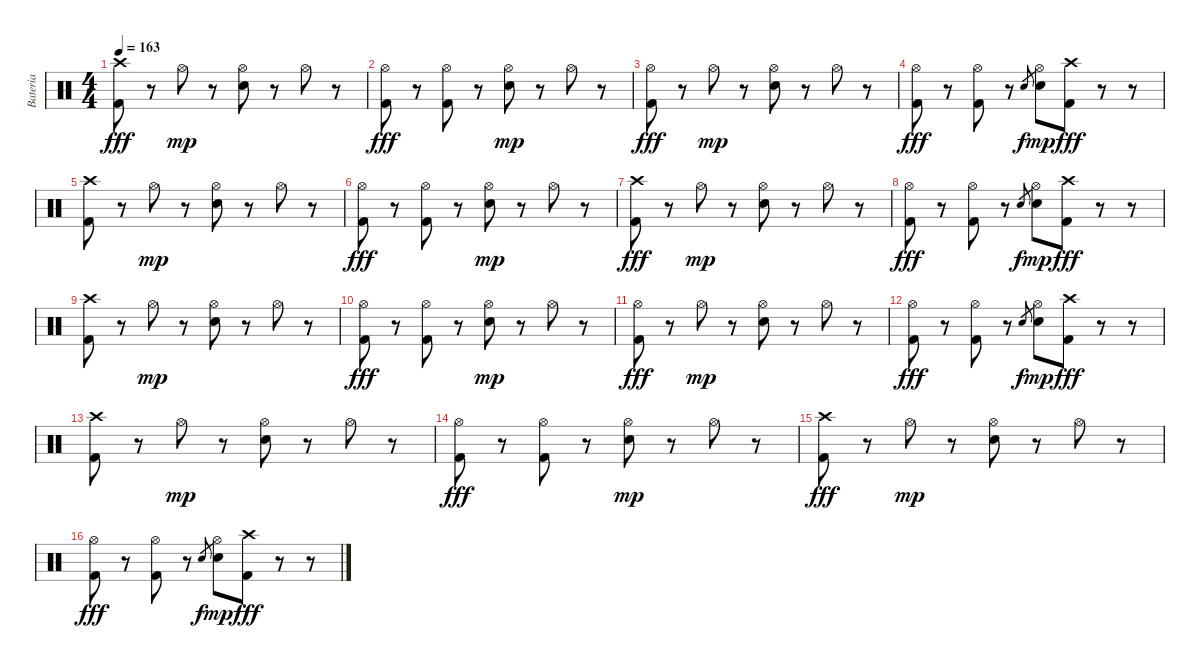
\track ("Bateria" "Bateria") {instrument percussion}
\staff {score}
\articulation defaults
\ts (4 4)
\tempo 163
\clef neutral
\ks c
("Crash high (hit)" "Kick (hit) 2").8{dy fff} r.8 "Hi-Hat (open)".8{dy mp} r.8 ("Hi-Hat (open)" "Electric Snare (hit)").8 r.8 "Hi-Hat (open)".8 r.8 |
("Hi-Hat (open)" "Kick (hit) 2").8{dy fff} r.8 ("Hi-Hat (open)" "Kick (hit) 2").8 r.8 ("Hi-Hat (open)" "Electric Snare (hit)").8{dy mp} r.8 "Hi-Hat (open)".8 r.8 |
("Hi-Hat (open)" "Kick (hit) 2").8{dy fff} r.8 "Hi-Hat (open)".8{dy mp} r.8 ("Hi-Hat (open)" "Electric Snare (hit)").8 r.8 "Hi-Hat (open)".8 r.8 |
("Hi-Hat (open)" "Kick (hit) 2").8{dy fff} r.8 ("Hi-Hat (open)" "Kick (hit) 2").8 r.8 "Electric Snare (hit)".8{gr dy f} ("Hi-Hat (open)" "Electric Snare (hit)").8{dy mp} ("Crash high (hit)" "Kick (hit) 2").8{dy fff} r.8 r.8 |
("Crash high (hit)" "Kick (hit) 2").8 r.8 "Hi-Hat (open)".8{dy mp} r.8 ("Hi-Hat (open)" "Electric Snare (hit)").8 r.8 "Hi-Hat (open)".8 r.8 |
("Hi-Hat (open)" "Kick (hit) 2").8{dy fff} r.8 ("Hi-Hat (open)" "Kick (hit) 2").8 r.8 ("Hi-Hat (open)" "Electric Snare (hit)").8{dy mp} r.8 "Hi-Hat (open)".8 r.8 |
("Crash high (hit)" "Kick (hit) 2").8{dy fff} r.8 "Hi-Hat (open)".8{dy mp} r.8 ("Hi-Hat (open)" "Electric Snare (hit)").8 r.8 "Hi-Hat (open)".8 r.8 |
("Hi-Hat (open)" "Kick (hit) 2").8{dy fff} r.8 ("Hi-Hat (open)" "Kick (hit) 2").8 r.8 "Electric Snare (hit)".8{gr dy f} ("Hi-Hat (open)" "Electric Snare (hit)").8{dy mp} ("Crash high (hit)" "Kick (hit) 2").8{dy fff} r.8 r.8 |
("Crash high (hit)" "Kick (hit) 2").8 r.8 "Hi-Hat (open)".8{dy mp} r.8 ("Hi-Hat (open)" "Electric Snare (hit)").8 r.8 "Hi-Hat (open)".8 r.8 |
("Hi-Hat (open)" "Kick (hit) 2").8{dy fff} r.8 ("Hi-Hat (open)" "Kick (hit) 2").8 r.8 ("Hi-Hat (open)" "Electric Snare (hit)").8{dy mp} r.8 "Hi-Hat (open)".8 r.8 |
("Hi-Hat (open)" "Kick (hit) 2").8{dy fff} r.8 "Hi-Hat (open)".8{dy mp} r.8 ("Hi-Hat (open)" "Electric Snare (hit)").8 r.8 "Hi-Hat (open)".8 r.8 |
("Hi-Hat (open)" "Kick (hit) 2").8{dy fff} r.8 ("Hi-Hat (open)" "Kick (hit) 2").8 r.8 "Electric Snare (hit)".8{gr dy f} ("Hi-Hat (open)" "Electric Snare (hit)").8{dy mp} ("Crash high (hit)" "Kick (hit) 2").8{dy fff} r.8 r.8 |
("Crash high (hit)" "Kick (hit) 2").8 r.8 "Hi-Hat (open)".8{dy mp} r.8 ("Hi-Hat (open)" "Electric Snare (hit)").8 r.8 "Hi-Hat (open)".8 r.8 |
("Hi-Hat (open)" "Kick (hit) 2").8{dy fff} r.8 ("Hi-Hat (open)" "Kick (hit) 2").8 r.8 ("Hi-Hat (open)" "Electric Snare (hit)").8{dy mp} r.8 "Hi-Hat (open)".8 r.8 |
("Crash high (hit)" "Kick (hit) 2").8{dy fff} r.8 "Hi-Hat (open)".8{dy mp} r.8 ("Hi-Hat (open)" "Electric Snare (hit)").8 r.8 "Hi-Hat (open)".8 r.8 |
("Hi-Hat (open)" "Kick (hit) 2").8{dy fff} r.8 ("Hi-Hat (open)" "Kick (hit) 2").8 r.8 "Electric Snare (hit)".8{gr dy f} ("Hi-Hat (open)" "Electric Snare (hit)").8{dy mp} ("Crash high (hit)" "Kick (hit) 2").8{dy fff} r.8 r.8
